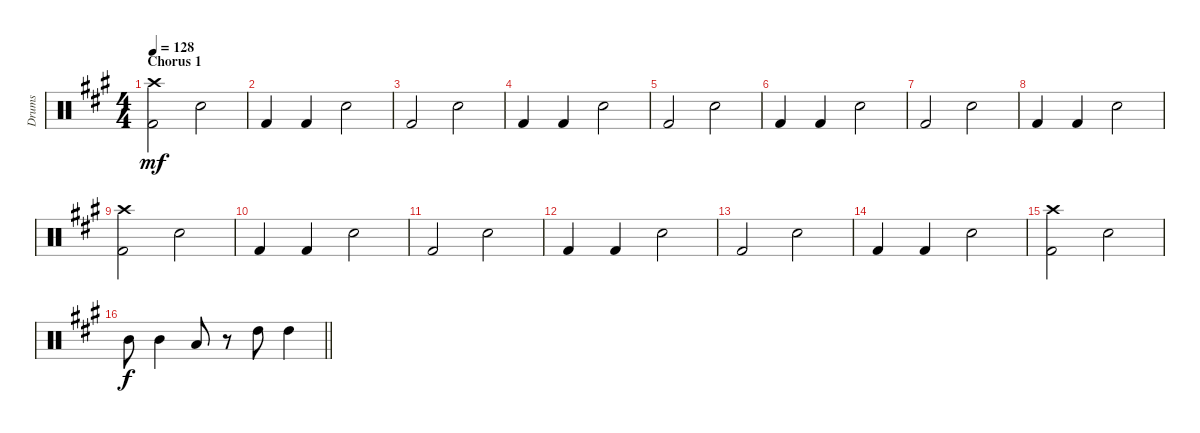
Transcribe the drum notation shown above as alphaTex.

\track ("Drums" "Drums") {instrument percussion}
\staff {score}
\articulation defaults
\ts (4 4)
\section ("" "Chorus 1")
\tempo 128
\clef neutral
\ks f#minor
("Crash high (hit)" "Kick (hit) 2").2{dy mf} "Electric Snare (hit)".2 |
"Kick (hit) 2".4 "Kick (hit) 2".4 "Electric Snare (hit)".2 |
"Kick (hit) 2".2 "Electric Snare (hit)".2 |
"Kick (hit) 2".4 "Kick (hit) 2".4 "Electric Snare (hit)".2 |
"Kick (hit) 2".2 "Electric Snare (hit)".2 |
"Kick (hit) 2".4 "Kick (hit) 2".4 "Electric Snare (hit)".2 |
"Kick (hit) 2".2 "Electric Snare (hit)".2 |
"Kick (hit) 2".4 "Kick (hit) 2".4 "Electric Snare (hit)".2 |
("Crash high (hit)" "Kick (hit) 2").2 "Electric Snare (hit)".2 |
"Kick (hit) 2".4 "Kick (hit) 2".4 "Electric Snare (hit)".2 |
"Kick (hit) 2".2 "Electric Snare (hit)".2 |
"Kick (hit) 2".4 "Kick (hit) 2".4 "Electric Snare (hit)".2 |
"Kick (hit) 2".2 "Electric Snare (hit)".2 |
"Kick (hit) 2".4 "Kick (hit) 2".4 "Electric Snare (hit)".2 |
("Crash high (hit)" "Kick (hit) 2").2 "Electric Snare (hit)".2 |
\barLineRight lightlight "Mid Tom (hit)".8{dy f} "Mid Tom (hit)".4 "Low Tom (hit)".8
r.8 "High Tom (hit)".8 "High Tom (hit)".4
